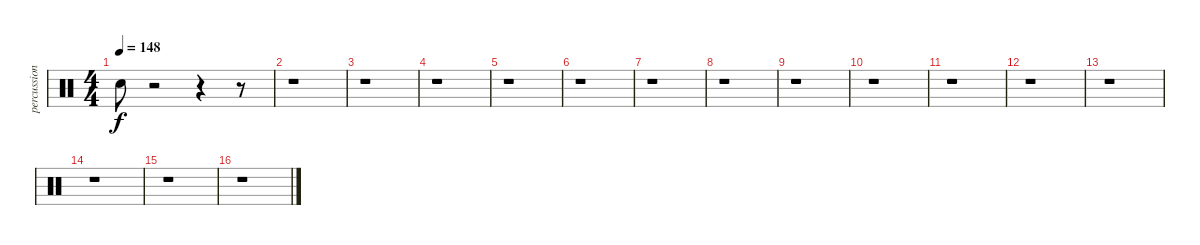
\track ("percussion fx 1" "percussion") {instrument percussion}
\staff {score}
\articulation defaults
\ts (4 4)
\tempo 148
\clef neutral
\ks c "Snare (hit)".8{dy f}
r.2 r.4 r.8 |
r.1 |
r.1 |
r.1 |
r.1 |
r.1 |
r.1 |
r.1 |
r.1 |
r.1 |
r.1 |
r.1 |
r.1 |
r.1 |
r.1 |
r.1
